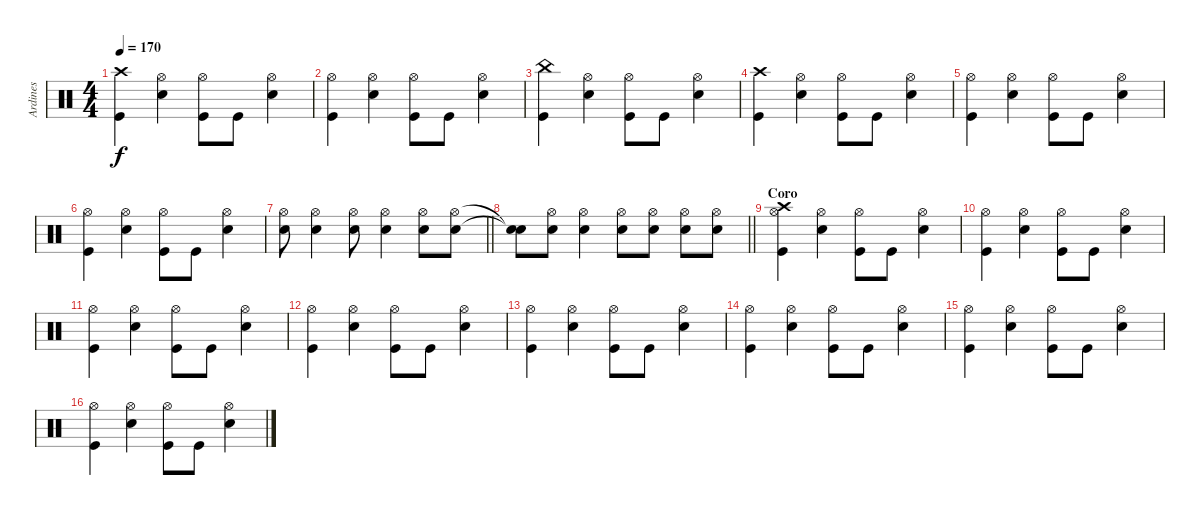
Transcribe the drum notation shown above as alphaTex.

\track ("Ardines" "Ardines") {instrument percussion}
\staff {score}
\articulation defaults
\ts (4 4)
\tempo 170
\clef neutral
\ks c
("Kick (hit)" "Crash high (hit)").4{dy f} ("Snare (hit) 2" "Hi-Hat (open)").4 ("Kick (hit)" "Hi-Hat (open)").8 "Kick (hit)".8 ("Snare (hit) 2" "Hi-Hat (open)").4 |
("Kick (hit)" "Hi-Hat (open)").4 ("Snare (hit) 2" "Hi-Hat (open)").4 ("Kick (hit)" "Hi-Hat (open)").8 "Kick (hit)".8 ("Snare (hit) 2" "Hi-Hat (open)").4 |
("Kick (hit)" "China (hit)").4 ("Snare (hit) 2" "Hi-Hat (open)").4 ("Kick (hit)" "Hi-Hat (open)").8 "Kick (hit)".8 ("Snare (hit) 2" "Hi-Hat (open)").4 |
("Kick (hit)" "Crash high (hit)").4 ("Snare (hit) 2" "Hi-Hat (open)").4 ("Kick (hit)" "Hi-Hat (open)").8 "Kick (hit)".8 ("Snare (hit) 2" "Hi-Hat (open)").4 |
("Kick (hit)" "Hi-Hat (open)").4 ("Snare (hit) 2" "Hi-Hat (open)").4 ("Kick (hit)" "Hi-Hat (open)").8 "Kick (hit)".8 ("Snare (hit) 2" "Hi-Hat (open)").4 |
("Kick (hit)" "Hi-Hat (open)").4 ("Snare (hit) 2" "Hi-Hat (open)").4 ("Kick (hit)" "Hi-Hat (open)").8 "Kick (hit)".8 ("Snare (hit) 2" "Hi-Hat (open)").4 |
\barLineRight lightlight
("Hi-Hat (open)" "Snare (hit) 2").8 ("Hi-Hat (open)" "Snare (hit) 2").4 ("Hi-Hat (open)" "Snare (hit) 2").8 ("Hi-Hat (open)" "Snare (hit) 2").4 ("Hi-Hat (open)" "Snare (hit) 2").8 ("Hi-Hat (open)" "Snare (hit) 2").8 |
\section ("" "")
\barLineRight lightlight
("Snare (hit)"{t} "Snare (hit)"{t}).8 ("Hi-Hat (open)" "Snare (hit) 2").8 ("Hi-Hat (open)" "Snare (hit) 2").4 ("Hi-Hat (open)" "Snare (hit) 2").8 ("Hi-Hat (open)" "Snare (hit) 2").8 ("Hi-Hat (open)" "Snare (hit) 2").8 ("Hi-Hat (open)" "Snare (hit) 2").8 |
\section ("" "Coro")
("Kick (hit)" "Hi-Hat (open)" "Crash high (hit)").4 ("Snare (hit) 2" "Hi-Hat (open)").4 ("Kick (hit)" "Hi-Hat (open)").8 "Kick (hit)".8 ("Snare (hit) 2" "Hi-Hat (open)").4 |
("Kick (hit)" "Hi-Hat (open)").4 ("Snare (hit) 2" "Hi-Hat (open)").4 ("Kick (hit)" "Hi-Hat (open)").8 "Kick (hit)".8 ("Snare (hit) 2" "Hi-Hat (open)").4 |
("Kick (hit)" "Hi-Hat (open)").4 ("Snare (hit) 2" "Hi-Hat (open)").4 ("Kick (hit)" "Hi-Hat (open)").8 "Kick (hit)".8 ("Snare (hit) 2" "Hi-Hat (open)").4 |
("Kick (hit)" "Hi-Hat (open)").4 ("Snare (hit) 2" "Hi-Hat (open)").4 ("Kick (hit)" "Hi-Hat (open)").8 "Kick (hit)".8 ("Snare (hit) 2" "Hi-Hat (open)").4 |
("Kick (hit)" "Hi-Hat (open)").4 ("Snare (hit) 2" "Hi-Hat (open)").4 ("Kick (hit)" "Hi-Hat (open)").8 "Kick (hit)".8 ("Snare (hit) 2" "Hi-Hat (open)").4 |
("Kick (hit)" "Hi-Hat (open)").4 ("Snare (hit) 2" "Hi-Hat (open)").4 ("Kick (hit)" "Hi-Hat (open)").8 "Kick (hit)".8 ("Snare (hit) 2" "Hi-Hat (open)").4 |
("Kick (hit)" "Hi-Hat (open)").4 ("Snare (hit) 2" "Hi-Hat (open)").4 ("Kick (hit)" "Hi-Hat (open)").8 "Kick (hit)".8 ("Snare (hit) 2" "Hi-Hat (open)").4 |
("Kick (hit)" "Hi-Hat (open)").4 ("Snare (hit) 2" "Hi-Hat (open)").4 ("Kick (hit)" "Hi-Hat (open)").8 "Kick (hit)".8 ("Snare (hit) 2" "Hi-Hat (open)").4
